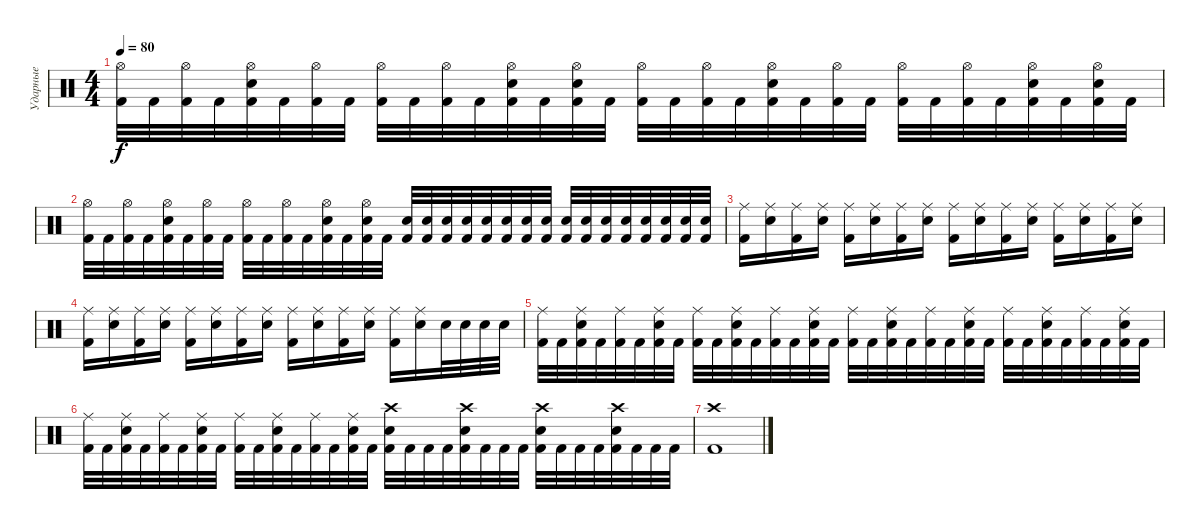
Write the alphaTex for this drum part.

\track ("Ударные" "Ударные") {instrument percussion}
\staff {score}
\articulation defaults
\ts (4 4)
\tempo 80
\clef neutral
\ks c
("Kick (hit) 2" "Hi-Hat (open)").32{dy f} "Kick (hit) 2".32 ("Kick (hit) 2" "Hi-Hat (open)").32 "Kick (hit) 2".32 ("Kick (hit) 2" "Snare (hit) 2" "Hi-Hat (open)").32 "Kick (hit) 2".32 ("Kick (hit) 2" "Hi-Hat (open)").32 "Kick (hit) 2".32 ("Kick (hit) 2" "Hi-Hat (open)").32 "Kick (hit) 2".32 ("Kick (hit) 2" "Hi-Hat (open)").32 "Kick (hit) 2".32 ("Kick (hit) 2" "Snare (hit) 2" "Hi-Hat (open)").32 "Kick (hit) 2".32 ("Kick (hit) 2" "Snare (hit) 2" "Hi-Hat (open)").32 "Kick (hit) 2".32 ("Kick (hit) 2" "Hi-Hat (open)").32 "Kick (hit) 2".32 ("Kick (hit) 2" "Hi-Hat (open)").32 "Kick (hit) 2".32 ("Kick (hit) 2" "Snare (hit) 2" "Hi-Hat (open)").32 "Kick (hit) 2".32 ("Kick (hit) 2" "Hi-Hat (open)").32 "Kick (hit) 2".32 ("Kick (hit) 2" "Hi-Hat (open)").32 "Kick (hit) 2".32 ("Kick (hit) 2" "Hi-Hat (open)").32 "Kick (hit) 2".32 ("Kick (hit) 2" "Hi-Hat (open)" "Snare (hit) 2").32 "Kick (hit) 2".32 ("Kick (hit) 2" "Hi-Hat (open)" "Snare (hit) 2").32 "Kick (hit) 2".32 |
("Kick (hit) 2" "Hi-Hat (open)").32 "Kick (hit) 2".32 ("Kick (hit) 2" "Hi-Hat (open)").32 "Kick (hit) 2".32 ("Kick (hit) 2" "Snare (hit) 2" "Hi-Hat (open)").32 "Kick (hit) 2".32 ("Kick (hit) 2" "Hi-Hat (open)").32 "Kick (hit) 2".32 ("Kick (hit) 2" "Hi-Hat (open)").32 "Kick (hit) 2".32 ("Kick (hit) 2" "Hi-Hat (open)").32 "Kick (hit) 2".32 ("Kick (hit) 2" "Snare (hit) 2" "Hi-Hat (open)").32 "Kick (hit) 2".32 ("Kick (hit) 2" "Snare (hit) 2" "Hi-Hat (open)").32 "Kick (hit) 2".32 ("Kick (hit) 2" "Snare (hit) 2").32 ("Kick (hit) 2" "Snare (hit) 2").32 ("Kick (hit) 2" "Snare (hit) 2").32 ("Kick (hit) 2" "Snare (hit) 2").32 ("Kick (hit) 2" "Snare (hit) 2").32 ("Kick (hit) 2" "Snare (hit) 2").32 ("Kick (hit) 2" "Snare (hit) 2").32 ("Kick (hit) 2" "Snare (hit) 2").32 ("Kick (hit) 2" "Snare (hit) 2").32 ("Kick (hit) 2" "Snare (hit) 2").32 ("Kick (hit) 2" "Snare (hit) 2").32 ("Kick (hit) 2" "Snare (hit) 2").32 ("Kick (hit) 2" "Snare (hit) 2").32 ("Kick (hit) 2" "Snare (hit) 2").32 ("Kick (hit) 2" "Snare (hit) 2").32 ("Kick (hit) 2" "Snare (hit) 2").32 |
("Ride (middle)" "Kick (hit) 2").16 ("Ride (middle)" "Snare (hit) 2").16 ("Ride (middle)" "Kick (hit) 2").16 ("Ride (middle)" "Snare (hit) 2").16 ("Ride (middle)" "Kick (hit) 2").16 ("Ride (middle)" "Snare (hit) 2").16 ("Ride (middle)" "Kick (hit) 2").16 ("Ride (middle)" "Snare (hit) 2").16 ("Ride (middle)" "Kick (hit) 2").16 ("Ride (middle)" "Snare (hit) 2").16 ("Ride (middle)" "Kick (hit) 2").16 ("Ride (middle)" "Snare (hit) 2").16 ("Ride (middle)" "Kick (hit) 2").16 ("Ride (middle)" "Snare (hit) 2").16 ("Ride (middle)" "Kick (hit) 2").16 ("Ride (middle)" "Snare (hit) 2").16 |
("Ride (middle)" "Kick (hit) 2").16 ("Ride (middle)" "Snare (hit) 2").16 ("Ride (middle)" "Kick (hit) 2").16 ("Ride (middle)" "Snare (hit) 2").16 ("Ride (middle)" "Kick (hit) 2").16 ("Ride (middle)" "Snare (hit) 2").16 ("Ride (middle)" "Kick (hit) 2").16 ("Ride (middle)" "Snare (hit) 2").16 ("Ride (middle)" "Kick (hit) 2").16 ("Ride (middle)" "Snare (hit) 2").16 ("Ride (middle)" "Kick (hit) 2").16 ("Ride (middle)" "Snare (hit) 2").16 ("Ride (middle)" "Kick (hit) 2").16 ("Ride (middle)" "Snare (hit) 2").16 "Snare (hit) 2".32 "Snare (hit) 2".32 "Snare (hit) 2".32 "Snare (hit) 2".32 |
("Kick (hit) 2" "Ride (middle)").32 "Kick (hit) 2".32 ("Kick (hit) 2" "Snare (hit) 2" "Ride (middle)").32 "Kick (hit) 2".32 ("Kick (hit) 2" "Ride (middle)").32 "Kick (hit) 2".32 ("Kick (hit) 2" "Snare (hit) 2" "Ride (middle)").32 "Kick (hit) 2".32 ("Kick (hit) 2" "Ride (middle)").32 "Kick (hit) 2".32 ("Kick (hit) 2" "Snare (hit) 2" "Ride (middle)").32 "Kick (hit) 2".32 ("Kick (hit) 2" "Ride (middle)").32 "Kick (hit) 2".32 ("Kick (hit) 2" "Ride (middle)" "Snare (hit) 2").32 "Kick (hit) 2".32 ("Kick (hit) 2" "Ride (middle)").32 "Kick (hit) 2".32 ("Kick (hit) 2" "Ride (middle)" "Snare (hit) 2").32 "Kick (hit) 2".32 ("Kick (hit) 2" "Ride (middle)").32 "Kick (hit) 2".32 ("Kick (hit) 2" "Ride (middle)" "Snare (hit) 2").32 "Kick (hit) 2".32 ("Kick (hit) 2" "Ride (middle)").32 "Kick (hit) 2".32 ("Kick (hit) 2" "Ride (middle)" "Snare (hit) 2").32 "Kick (hit) 2".32 ("Kick (hit) 2" "Ride (middle)").32 "Kick (hit) 2".32 ("Kick (hit) 2" "Ride (middle)" "Snare (hit) 2").32 "Kick (hit) 2".32 |
("Kick (hit) 2" "Ride (middle)").32 "Kick (hit) 2".32 ("Kick (hit) 2" "Snare (hit) 2" "Ride (middle)").32 "Kick (hit) 2".32 ("Kick (hit) 2" "Ride (middle)").32 "Kick (hit) 2".32 ("Kick (hit) 2" "Snare (hit) 2" "Ride (middle)").32 "Kick (hit) 2".32 ("Kick (hit) 2" "Ride (middle)").32 "Kick (hit) 2".32 ("Kick (hit) 2" "Snare (hit) 2" "Ride (middle)").32 "Kick (hit) 2".32 ("Kick (hit) 2" "Ride (middle)").32 "Kick (hit) 2".32 ("Kick (hit) 2" "Ride (middle)" "Snare (hit) 2").32 "Kick (hit) 2".32 ("Kick (hit) 2" "Snare (hit) 2" "Crash high (hit)").32 "Kick (hit) 2".32 "Kick (hit) 2".32 "Kick (hit) 2".32 ("Kick (hit) 2" "Snare (hit) 2" "Crash high (hit)").32 "Kick (hit) 2".32 "Kick (hit) 2".32 "Kick (hit) 2".32 ("Kick (hit) 2" "Snare (hit) 2" "Crash high (hit)").32 "Kick (hit) 2".32 "Kick (hit) 2".32 "Kick (hit) 2".32 ("Kick (hit) 2" "Snare (hit) 2" "Crash high (hit)").32 "Kick (hit) 2".32 "Kick (hit) 2".32 "Kick (hit) 2".32 |
("Crash high (hit)" "Kick (hit) 2").1
